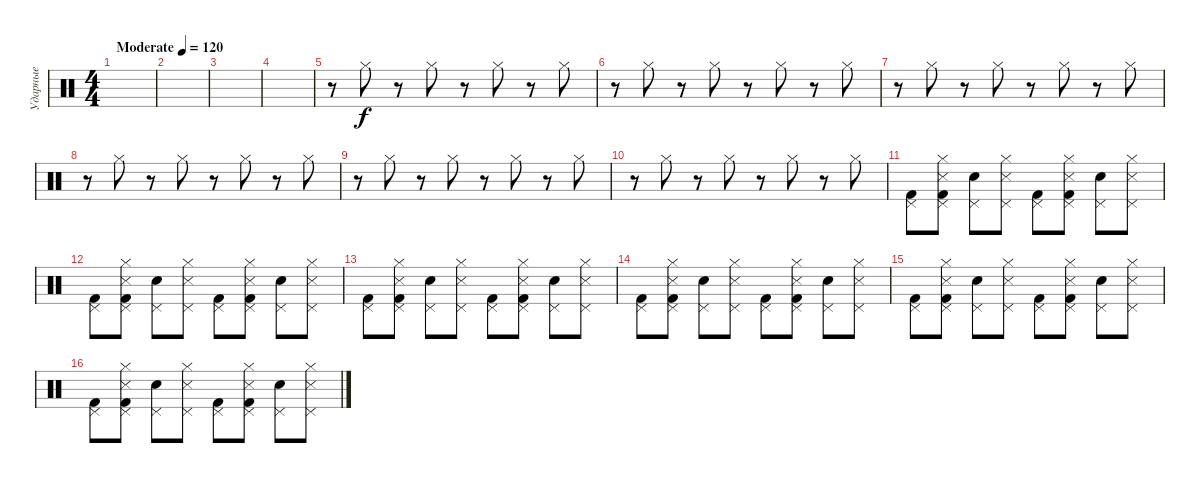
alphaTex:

\track ("Ударные" "Ударные") {instrument percussion}
\staff {score}
\articulation defaults
\ts (4 4)
\tempo (120 "Moderate")
\clef neutral
\ks c
|
|
|
|
r.8 "Hi-Hat (closed)".8 r.8 "Hi-Hat (closed)".8 r.8 "Hi-Hat (closed)".8 r.8 "Hi-Hat (closed)".8 |
r.8 "Hi-Hat (closed)".8 r.8 "Hi-Hat (closed)".8 r.8 "Hi-Hat (closed)".8 r.8 "Hi-Hat (closed)".8 |
r.8 "Hi-Hat (closed)".8 r.8 "Hi-Hat (closed)".8 r.8 "Hi-Hat (closed)".8 r.8 "Hi-Hat (closed)".8 |
r.8 "Hi-Hat (closed)".8 r.8 "Hi-Hat (closed)".8 r.8 "Hi-Hat (closed)".8 r.8 "Hi-Hat (closed)".8 |
r.8 "Hi-Hat (closed)".8 r.8 "Hi-Hat (closed)".8 r.8 "Hi-Hat (closed)".8 r.8 "Hi-Hat (closed)".8 |
r.8 "Hi-Hat (closed)".8 r.8 "Hi-Hat (closed)".8 r.8 "Hi-Hat (closed)".8 r.8 "Hi-Hat (closed)".8 |
("Kick (hit) 2" "Pedal Hi-Hat (hit)").8 ("Kick (hit) 2" "Pedal Hi-Hat (hit)" "Hi-Hat (closed)" "Snare (side stick) 3").8 ("Snare (hit) 2" "Pedal Hi-Hat (hit)").8 ("Pedal Hi-Hat (hit)" "Hi-Hat (closed)" "Snare (side stick) 3").8 ("Kick (hit) 2" "Pedal Hi-Hat (hit)").8 ("Kick (hit) 2" "Pedal Hi-Hat (hit)" "Hi-Hat (closed)" "Snare (side stick) 3").8 ("Snare (hit) 2" "Pedal Hi-Hat (hit)").8 ("Pedal Hi-Hat (hit)" "Hi-Hat (closed)" "Snare (side stick) 3").8 |
("Kick (hit) 2" "Pedal Hi-Hat (hit)").8 ("Kick (hit) 2" "Pedal Hi-Hat (hit)" "Hi-Hat (closed)" "Snare (side stick) 3").8 ("Snare (hit) 2" "Pedal Hi-Hat (hit)").8 ("Pedal Hi-Hat (hit)" "Hi-Hat (closed)" "Snare (side stick) 3").8 ("Kick (hit) 2" "Pedal Hi-Hat (hit)").8 ("Kick (hit) 2" "Pedal Hi-Hat (hit)" "Hi-Hat (closed)" "Snare (side stick) 3").8 ("Snare (hit) 2" "Pedal Hi-Hat (hit)").8 ("Pedal Hi-Hat (hit)" "Hi-Hat (closed)" "Snare (side stick) 3").8 |
("Kick (hit) 2" "Pedal Hi-Hat (hit)").8 ("Kick (hit) 2" "Pedal Hi-Hat (hit)" "Hi-Hat (closed)" "Snare (side stick) 3").8 ("Snare (hit) 2" "Pedal Hi-Hat (hit)").8 ("Pedal Hi-Hat (hit)" "Hi-Hat (closed)" "Snare (side stick) 3").8 ("Kick (hit) 2" "Pedal Hi-Hat (hit)").8 ("Kick (hit) 2" "Pedal Hi-Hat (hit)" "Hi-Hat (closed)" "Snare (side stick) 3").8 ("Snare (hit) 2" "Pedal Hi-Hat (hit)").8 ("Pedal Hi-Hat (hit)" "Hi-Hat (closed)" "Snare (side stick) 3").8 |
("Kick (hit) 2" "Pedal Hi-Hat (hit)").8 ("Kick (hit) 2" "Pedal Hi-Hat (hit)" "Hi-Hat (closed)" "Snare (side stick) 3").8 ("Snare (hit) 2" "Pedal Hi-Hat (hit)").8 ("Pedal Hi-Hat (hit)" "Hi-Hat (closed)" "Snare (side stick) 3").8 ("Kick (hit) 2" "Pedal Hi-Hat (hit)").8 ("Kick (hit) 2" "Pedal Hi-Hat (hit)" "Hi-Hat (closed)" "Snare (side stick) 3").8 ("Snare (hit) 2" "Pedal Hi-Hat (hit)").8 ("Pedal Hi-Hat (hit)" "Hi-Hat (closed)" "Snare (side stick) 3").8 |
("Kick (hit) 2" "Pedal Hi-Hat (hit)").8 ("Kick (hit) 2" "Pedal Hi-Hat (hit)" "Hi-Hat (closed)" "Snare (side stick) 3").8 ("Snare (hit) 2" "Pedal Hi-Hat (hit)").8 ("Pedal Hi-Hat (hit)" "Hi-Hat (closed)" "Snare (side stick) 3").8 ("Kick (hit) 2" "Pedal Hi-Hat (hit)").8 ("Kick (hit) 2" "Pedal Hi-Hat (hit)" "Hi-Hat (closed)" "Snare (side stick) 3").8 ("Snare (hit) 2" "Pedal Hi-Hat (hit)").8 ("Pedal Hi-Hat (hit)" "Hi-Hat (closed)" "Snare (side stick) 3").8 |
("Kick (hit) 2" "Pedal Hi-Hat (hit)").8 ("Kick (hit) 2" "Pedal Hi-Hat (hit)" "Hi-Hat (closed)" "Snare (side stick) 3").8 ("Snare (hit) 2" "Pedal Hi-Hat (hit)").8 ("Pedal Hi-Hat (hit)" "Hi-Hat (closed)" "Snare (side stick) 3").8 ("Kick (hit) 2" "Pedal Hi-Hat (hit)").8 ("Kick (hit) 2" "Pedal Hi-Hat (hit)" "Hi-Hat (closed)" "Snare (side stick) 3").8 ("Snare (hit) 2" "Pedal Hi-Hat (hit)").8 ("Pedal Hi-Hat (hit)" "Hi-Hat (closed)" "Snare (side stick) 3").8
